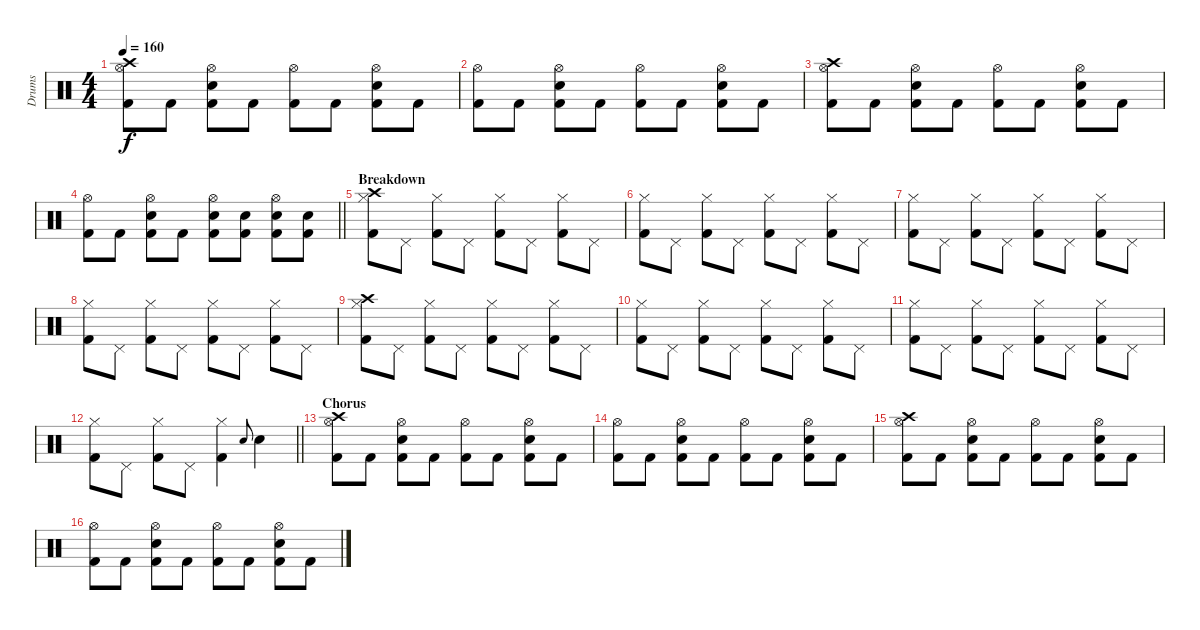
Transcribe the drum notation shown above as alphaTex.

\track ("Drums" "Drums") {instrument percussion}
\staff {score}
\articulation defaults
\ts (4 4)
\tempo 160
\clef neutral
\ks c
("Crash high (hit)" "Hi-Hat (open)" "Kick (hit) 2").8{dy f} "Kick (hit) 2".8 ("Hi-Hat (open)" "Snare (hit) 2" "Kick (hit) 2").8 "Kick (hit) 2".8 ("Hi-Hat (open)" "Kick (hit) 2").8 "Kick (hit) 2".8 ("Hi-Hat (open)" "Snare (hit) 2" "Kick (hit) 2").8 "Kick (hit) 2".8 |
("Hi-Hat (open)" "Kick (hit) 2").8 "Kick (hit) 2".8 ("Hi-Hat (open)" "Snare (hit) 2" "Kick (hit) 2").8 "Kick (hit) 2".8 ("Hi-Hat (open)" "Kick (hit) 2").8 "Kick (hit) 2".8 ("Hi-Hat (open)" "Snare (hit) 2" "Kick (hit) 2").8 "Kick (hit) 2".8 |
("Crash high (hit)" "Hi-Hat (open)" "Kick (hit) 2").8 "Kick (hit) 2".8 ("Hi-Hat (open)" "Snare (hit) 2" "Kick (hit) 2").8 "Kick (hit) 2".8 ("Hi-Hat (open)" "Kick (hit) 2").8 "Kick (hit) 2".8 ("Hi-Hat (open)" "Snare (hit) 2" "Kick (hit) 2").8 "Kick (hit) 2".8 |
\barLineRight lightlight
("Hi-Hat (open)" "Kick (hit) 2").8 "Kick (hit) 2".8 ("Hi-Hat (open)" "Snare (hit) 2" "Kick (hit) 2").8 "Kick (hit) 2".8 ("Hi-Hat (open)" "Snare (hit) 2" "Kick (hit) 2").8 ("Snare (hit) 2" "Kick (hit) 2").8 ("Hi-Hat (open)" "Snare (hit) 2" "Kick (hit) 2").8 ("Snare (hit) 2" "Kick (hit) 2").8 |
\section ("" "Breakdown")
("Crash high (hit)" "Hi-Hat (closed)" "Kick (hit) 2").8 "Pedal Hi-Hat (hit)".8 ("Hi-Hat (closed)" "Kick (hit) 2").8 "Pedal Hi-Hat (hit)".8 ("Hi-Hat (closed)" "Kick (hit) 2").8 "Pedal Hi-Hat (hit)".8 ("Hi-Hat (closed)" "Kick (hit) 2").8 "Pedal Hi-Hat (hit)".8 |
("Hi-Hat (closed)" "Kick (hit) 2").8 "Pedal Hi-Hat (hit)".8 ("Hi-Hat (closed)" "Kick (hit) 2").8 "Pedal Hi-Hat (hit)".8 ("Hi-Hat (closed)" "Kick (hit) 2").8 "Pedal Hi-Hat (hit)".8 ("Hi-Hat (closed)" "Kick (hit) 2").8 "Pedal Hi-Hat (hit)".8 |
("Hi-Hat (closed)" "Kick (hit) 2").8 "Pedal Hi-Hat (hit)".8 ("Hi-Hat (closed)" "Kick (hit) 2").8 "Pedal Hi-Hat (hit)".8 ("Hi-Hat (closed)" "Kick (hit) 2").8 "Pedal Hi-Hat (hit)".8 ("Hi-Hat (closed)" "Kick (hit) 2").8 "Pedal Hi-Hat (hit)".8 |
("Hi-Hat (closed)" "Kick (hit) 2").8 "Pedal Hi-Hat (hit)".8 ("Hi-Hat (closed)" "Kick (hit) 2").8 "Pedal Hi-Hat (hit)".8 ("Hi-Hat (closed)" "Kick (hit) 2").8 "Pedal Hi-Hat (hit)".8 ("Hi-Hat (closed)" "Kick (hit) 2").8 "Pedal Hi-Hat (hit)".8 |
("Crash high (hit)" "Hi-Hat (closed)" "Kick (hit) 2").8 "Pedal Hi-Hat (hit)".8 ("Hi-Hat (closed)" "Kick (hit) 2").8 "Pedal Hi-Hat (hit)".8 ("Hi-Hat (closed)" "Kick (hit) 2").8 "Pedal Hi-Hat (hit)".8 ("Hi-Hat (closed)" "Kick (hit) 2").8 "Pedal Hi-Hat (hit)".8 |
("Hi-Hat (closed)" "Kick (hit) 2").8 "Pedal Hi-Hat (hit)".8 ("Hi-Hat (closed)" "Kick (hit) 2").8 "Pedal Hi-Hat (hit)".8 ("Hi-Hat (closed)" "Kick (hit) 2").8 "Pedal Hi-Hat (hit)".8 ("Hi-Hat (closed)" "Kick (hit) 2").8 "Pedal Hi-Hat (hit)".8 |
("Hi-Hat (closed)" "Kick (hit) 2").8 "Pedal Hi-Hat (hit)".8 ("Hi-Hat (closed)" "Kick (hit) 2").8 "Pedal Hi-Hat (hit)".8 ("Hi-Hat (closed)" "Kick (hit) 2").8 "Pedal Hi-Hat (hit)".8 ("Hi-Hat (closed)" "Kick (hit) 2").8 "Pedal Hi-Hat (hit)".8 |
\barLineRight lightlight
("Hi-Hat (closed)" "Kick (hit) 2").8 "Pedal Hi-Hat (hit)".8 ("Hi-Hat (closed)" "Kick (hit) 2").8 "Pedal Hi-Hat (hit)".8 ("Hi-Hat (closed)" "Kick (hit) 2").4 "Snare (hit) 2".8{gr onbeat} "Snare (hit) 2".4 |
\section ("" "Chorus")
("Crash high (hit)" "Hi-Hat (open)" "Kick (hit) 2").8 "Kick (hit) 2".8 ("Hi-Hat (open)" "Snare (hit) 2" "Kick (hit) 2").8 "Kick (hit) 2".8 ("Hi-Hat (open)" "Kick (hit) 2").8 "Kick (hit) 2".8 ("Hi-Hat (open)" "Snare (hit) 2" "Kick (hit) 2").8 "Kick (hit) 2".8 |
("Hi-Hat (open)" "Kick (hit) 2").8 "Kick (hit) 2".8 ("Hi-Hat (open)" "Snare (hit) 2" "Kick (hit) 2").8 "Kick (hit) 2".8 ("Hi-Hat (open)" "Kick (hit) 2").8 "Kick (hit) 2".8 ("Hi-Hat (open)" "Snare (hit) 2" "Kick (hit) 2").8 "Kick (hit) 2".8 |
("Crash high (hit)" "Hi-Hat (open)" "Kick (hit) 2").8 "Kick (hit) 2".8 ("Hi-Hat (open)" "Snare (hit) 2" "Kick (hit) 2").8 "Kick (hit) 2".8 ("Hi-Hat (open)" "Kick (hit) 2").8 "Kick (hit) 2".8 ("Hi-Hat (open)" "Snare (hit) 2" "Kick (hit) 2").8 "Kick (hit) 2".8 |
("Hi-Hat (open)" "Kick (hit) 2").8 "Kick (hit) 2".8 ("Hi-Hat (open)" "Snare (hit) 2" "Kick (hit) 2").8 "Kick (hit) 2".8 ("Hi-Hat (open)" "Kick (hit) 2").8 "Kick (hit) 2".8 ("Hi-Hat (open)" "Snare (hit) 2" "Kick (hit) 2").8 "Kick (hit) 2".8
